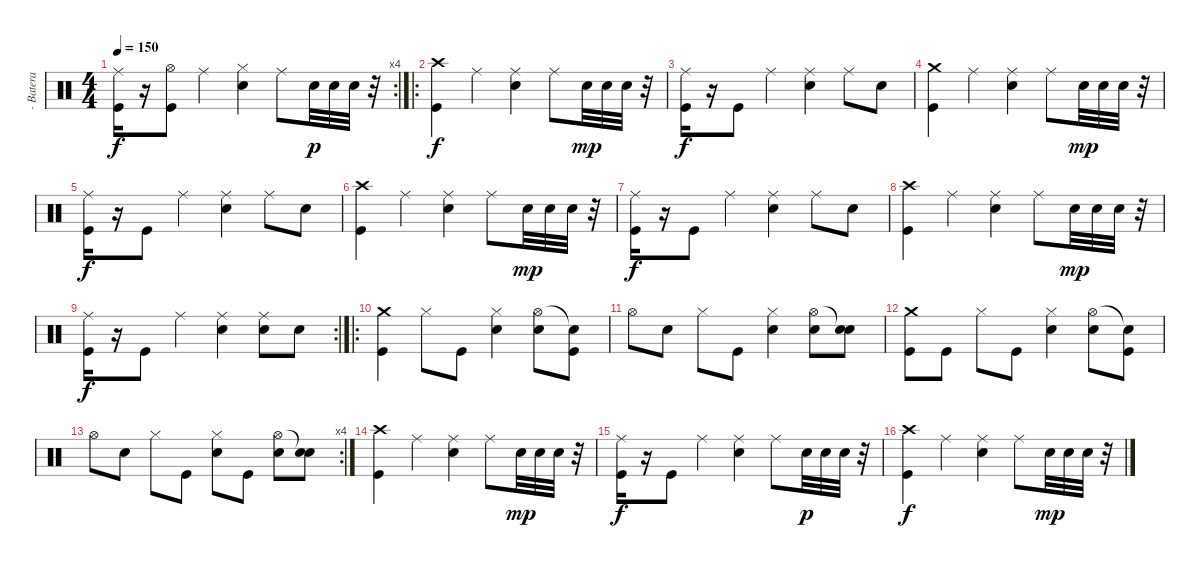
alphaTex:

\track ("- Batera" "- Batera") {instrument percussion}
\staff {score}
\articulation defaults
\rc 4
\ts (4 4)
\tempo 150
\clef neutral
\ks c
("Ride (middle)" "Kick (hit)").16{dy f} r.16 ("Hi-Hat (open)" "Kick (hit)").8 "Ride (middle)".4 ("Hi-Hat (closed)" "Snare (hit) 2").4 "Ride (middle)".8 "Snare (hit) 2".32{dy p} "Snare (hit) 2".32 "Snare (hit) 2".32 r.32 |
\ro
("Crash high (hit)" "Kick (hit)").4{dy f} "Ride (middle)".4 ("Ride (middle)" "Snare (hit) 2").4 "Ride (middle)".8 "Snare (hit) 2".32{dy mp} "Snare (hit) 2".32 "Snare (hit) 2".32 r.32 |
("Ride (middle)" "Kick (hit)").16{dy f} r.16 "Kick (hit)".8 "Ride (middle)".4 ("Ride (middle)" "Snare (hit) 2").4 "Ride (middle)".8 "Snare (hit) 2".8 |
("Crash medium (hit)" "Kick (hit)").4 "Ride (middle)".4 ("Ride (middle)" "Snare (hit) 2").4 "Ride (middle)".8 "Snare (hit) 2".32{dy mp} "Snare (hit) 2".32 "Snare (hit) 2".32 r.32 |
("Ride (middle)" "Kick (hit)").16{dy f} r.16 "Kick (hit)".8 "Ride (middle)".4 ("Ride (middle)" "Snare (hit) 2").4 "Ride (middle)".8 "Snare (hit) 2".8 |
("Crash high (hit)" "Kick (hit)").4 "Ride (middle)".4 ("Ride (middle)" "Snare (hit) 2").4 "Ride (middle)".8 "Snare (hit) 2".32{dy mp} "Snare (hit) 2".32 "Snare (hit) 2".32 r.32 |
("Ride (middle)" "Kick (hit)").16{dy f} r.16 "Kick (hit)".8 "Ride (middle)".4 ("Ride (middle)" "Snare (hit) 2").4 "Ride (middle)".8 "Snare (hit) 2".8 |
("Crash high (hit)" "Kick (hit)").4 "Ride (middle)".4 ("Ride (middle)" "Snare (hit) 2").4 "Ride (middle)".8 "Snare (hit) 2".32{dy mp} "Snare (hit) 2".32 "Snare (hit) 2".32 r.32 |
\rc 2
("Ride (middle)" "Kick (hit)").16{dy f} r.16 "Kick (hit)".8 "Ride (middle)".4 ("Ride (middle)" "Snare (hit) 2").4 ("Ride (middle)" "Snare (hit) 2").8 "Snare (hit) 2".8 |
\ro
("Crash medium (hit)" "Kick (hit)").4 "Hi-Hat (closed)".8 "Kick (hit)".8 ("Hi-Hat (closed)" "Snare (hit) 2").4 ("Hi-Hat (open)" "Snare (hit) 2").8 ("Snare (hit)"{t} "Kick (hit)").8 |
"Hi-Hat (open)".8 "Snare (hit) 2".8 "Hi-Hat (closed)".8 "Kick (hit)".8 ("Hi-Hat (closed)" "Snare (hit) 2").4 ("Hi-Hat (open)" "Snare (hit) 2").8 ("Snare (hit)"{t} "Snare (hit) 2").8 |
("Crash medium (hit)" "Kick (hit)").8 "Kick (hit)".8 "Hi-Hat (closed)".8 "Kick (hit)".8 ("Hi-Hat (closed)" "Snare (hit) 2").4 ("Hi-Hat (open)" "Snare (hit) 2").8 ("Snare (hit)"{t} "Kick (hit)").8 |
\rc 4 "Hi-Hat (open)".8 "Snare (hit) 2".8 "Hi-Hat (closed)".8 "Kick (hit)".8
("Hi-Hat (closed)" "Snare (hit) 2").8 "Kick (hit)".8 ("Hi-Hat (open)" "Snare (hit) 2").8 ("Snare (hit)"{t} "Snare (hit) 2").8 |
("Crash high (hit)" "Kick (hit)").4 "Ride (middle)".4 ("Ride (middle)" "Snare (hit) 2").4 "Ride (middle)".8 "Snare (hit) 2".32{dy mp} "Snare (hit) 2".32 "Snare (hit) 2".32 r.32 |
("Ride (middle)" "Kick (hit)").16{dy f} r.16 "Kick (hit)".8 "Ride (middle)".4 ("Ride (middle)" "Snare (hit) 2").4 "Ride (middle)".8 "Snare (hit) 2".32{dy p} "Snare (hit) 2".32 "Snare (hit) 2".32 r.32 |
("Crash high (hit)" "Kick (hit)").4{dy f} "Ride (middle)".4 ("Ride (middle)" "Snare (hit) 2").4 "Ride (middle)".8 "Snare (hit) 2".32{dy mp} "Snare (hit) 2".32 "Snare (hit) 2".32 r.32
